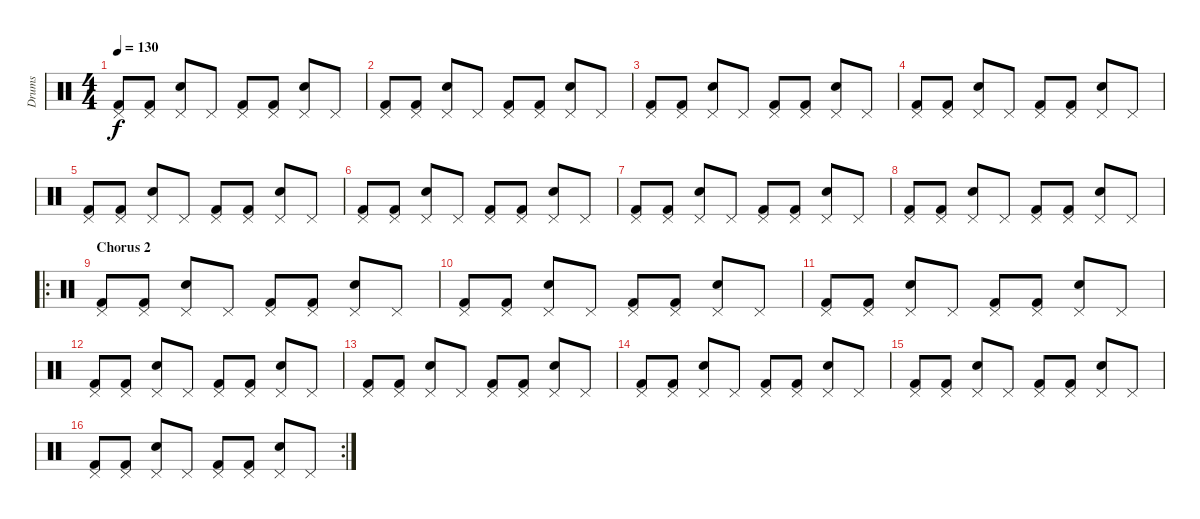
\track ("Drums" "Drums") {instrument percussion}
\staff {score}
\articulation defaults
\ts (4 4)
\tempo 130
\clef neutral
\ks c
("Pedal Hi-Hat (hit)" "Kick (hit) 2").8{dy f} ("Pedal Hi-Hat (hit)" "Kick (hit) 2").8 ("Pedal Hi-Hat (hit)" "Snare (hit) 2").8 "Pedal Hi-Hat (hit)".8 ("Pedal Hi-Hat (hit)" "Kick (hit) 2").8 ("Pedal Hi-Hat (hit)" "Kick (hit) 2").8 ("Pedal Hi-Hat (hit)" "Snare (hit) 2").8 "Pedal Hi-Hat (hit)".8 |
("Pedal Hi-Hat (hit)" "Kick (hit) 2").8 ("Pedal Hi-Hat (hit)" "Kick (hit) 2").8 ("Pedal Hi-Hat (hit)" "Snare (hit) 2").8 "Pedal Hi-Hat (hit)".8 ("Pedal Hi-Hat (hit)" "Kick (hit) 2").8 ("Pedal Hi-Hat (hit)" "Kick (hit) 2").8 ("Pedal Hi-Hat (hit)" "Snare (hit) 2").8 "Pedal Hi-Hat (hit)".8 |
("Pedal Hi-Hat (hit)" "Kick (hit) 2").8 ("Pedal Hi-Hat (hit)" "Kick (hit) 2").8 ("Pedal Hi-Hat (hit)" "Snare (hit) 2").8 "Pedal Hi-Hat (hit)".8 ("Pedal Hi-Hat (hit)" "Kick (hit) 2").8 ("Pedal Hi-Hat (hit)" "Kick (hit) 2").8 ("Pedal Hi-Hat (hit)" "Snare (hit) 2").8 "Pedal Hi-Hat (hit)".8 |
("Pedal Hi-Hat (hit)" "Kick (hit) 2").8 ("Pedal Hi-Hat (hit)" "Kick (hit) 2").8 ("Pedal Hi-Hat (hit)" "Snare (hit) 2").8 "Pedal Hi-Hat (hit)".8 ("Pedal Hi-Hat (hit)" "Kick (hit) 2").8 ("Pedal Hi-Hat (hit)" "Kick (hit) 2").8 ("Pedal Hi-Hat (hit)" "Snare (hit) 2").8 "Pedal Hi-Hat (hit)".8 |
("Pedal Hi-Hat (hit)" "Kick (hit) 2").8 ("Pedal Hi-Hat (hit)" "Kick (hit) 2").8 ("Pedal Hi-Hat (hit)" "Snare (hit) 2").8 "Pedal Hi-Hat (hit)".8 ("Pedal Hi-Hat (hit)" "Kick (hit) 2").8 ("Pedal Hi-Hat (hit)" "Kick (hit) 2").8 ("Pedal Hi-Hat (hit)" "Snare (hit) 2").8 "Pedal Hi-Hat (hit)".8 |
("Pedal Hi-Hat (hit)" "Kick (hit) 2").8 ("Pedal Hi-Hat (hit)" "Kick (hit) 2").8 ("Pedal Hi-Hat (hit)" "Snare (hit) 2").8 "Pedal Hi-Hat (hit)".8 ("Pedal Hi-Hat (hit)" "Kick (hit) 2").8 ("Pedal Hi-Hat (hit)" "Kick (hit) 2").8 ("Pedal Hi-Hat (hit)" "Snare (hit) 2").8 "Pedal Hi-Hat (hit)".8 |
("Pedal Hi-Hat (hit)" "Kick (hit) 2").8 ("Pedal Hi-Hat (hit)" "Kick (hit) 2").8 ("Pedal Hi-Hat (hit)" "Snare (hit) 2").8 "Pedal Hi-Hat (hit)".8 ("Pedal Hi-Hat (hit)" "Kick (hit) 2").8 ("Pedal Hi-Hat (hit)" "Kick (hit) 2").8 ("Pedal Hi-Hat (hit)" "Snare (hit) 2").8 "Pedal Hi-Hat (hit)".8 |
("Pedal Hi-Hat (hit)" "Kick (hit) 2").8 ("Pedal Hi-Hat (hit)" "Kick (hit) 2").8 ("Pedal Hi-Hat (hit)" "Snare (hit) 2").8 "Pedal Hi-Hat (hit)".8 ("Pedal Hi-Hat (hit)" "Kick (hit) 2").8 ("Pedal Hi-Hat (hit)" "Kick (hit) 2").8 ("Pedal Hi-Hat (hit)" "Snare (hit) 2").8 "Pedal Hi-Hat (hit)".8 |
\ro
\section ("" "Chorus 2")
("Pedal Hi-Hat (hit)" "Kick (hit) 2").8 ("Pedal Hi-Hat (hit)" "Kick (hit) 2").8 ("Pedal Hi-Hat (hit)" "Snare (hit) 2").8 "Pedal Hi-Hat (hit)".8 ("Pedal Hi-Hat (hit)" "Kick (hit) 2").8 ("Pedal Hi-Hat (hit)" "Kick (hit) 2").8 ("Pedal Hi-Hat (hit)" "Snare (hit) 2").8 "Pedal Hi-Hat (hit)".8 |
("Pedal Hi-Hat (hit)" "Kick (hit) 2").8 ("Pedal Hi-Hat (hit)" "Kick (hit) 2").8 ("Pedal Hi-Hat (hit)" "Snare (hit) 2").8 "Pedal Hi-Hat (hit)".8 ("Pedal Hi-Hat (hit)" "Kick (hit) 2").8 ("Pedal Hi-Hat (hit)" "Kick (hit) 2").8 ("Pedal Hi-Hat (hit)" "Snare (hit) 2").8 "Pedal Hi-Hat (hit)".8 |
("Pedal Hi-Hat (hit)" "Kick (hit) 2").8 ("Pedal Hi-Hat (hit)" "Kick (hit) 2").8 ("Pedal Hi-Hat (hit)" "Snare (hit) 2").8 "Pedal Hi-Hat (hit)".8 ("Pedal Hi-Hat (hit)" "Kick (hit) 2").8 ("Pedal Hi-Hat (hit)" "Kick (hit) 2").8 ("Pedal Hi-Hat (hit)" "Snare (hit) 2").8 "Pedal Hi-Hat (hit)".8 |
("Pedal Hi-Hat (hit)" "Kick (hit) 2").8 ("Pedal Hi-Hat (hit)" "Kick (hit) 2").8 ("Pedal Hi-Hat (hit)" "Snare (hit) 2").8 "Pedal Hi-Hat (hit)".8 ("Pedal Hi-Hat (hit)" "Kick (hit) 2").8 ("Pedal Hi-Hat (hit)" "Kick (hit) 2").8 ("Pedal Hi-Hat (hit)" "Snare (hit) 2").8 "Pedal Hi-Hat (hit)".8 |
("Pedal Hi-Hat (hit)" "Kick (hit) 2").8 ("Pedal Hi-Hat (hit)" "Kick (hit) 2").8 ("Pedal Hi-Hat (hit)" "Snare (hit) 2").8 "Pedal Hi-Hat (hit)".8 ("Pedal Hi-Hat (hit)" "Kick (hit) 2").8 ("Pedal Hi-Hat (hit)" "Kick (hit) 2").8 ("Pedal Hi-Hat (hit)" "Snare (hit) 2").8 "Pedal Hi-Hat (hit)".8 |
("Pedal Hi-Hat (hit)" "Kick (hit) 2").8 ("Pedal Hi-Hat (hit)" "Kick (hit) 2").8 ("Pedal Hi-Hat (hit)" "Snare (hit) 2").8 "Pedal Hi-Hat (hit)".8 ("Pedal Hi-Hat (hit)" "Kick (hit) 2").8 ("Pedal Hi-Hat (hit)" "Kick (hit) 2").8 ("Pedal Hi-Hat (hit)" "Snare (hit) 2").8 "Pedal Hi-Hat (hit)".8 |
("Pedal Hi-Hat (hit)" "Kick (hit) 2").8 ("Pedal Hi-Hat (hit)" "Kick (hit) 2").8 ("Pedal Hi-Hat (hit)" "Snare (hit) 2").8 "Pedal Hi-Hat (hit)".8 ("Pedal Hi-Hat (hit)" "Kick (hit) 2").8 ("Pedal Hi-Hat (hit)" "Kick (hit) 2").8 ("Pedal Hi-Hat (hit)" "Snare (hit) 2").8 "Pedal Hi-Hat (hit)".8 |
\rc 2
("Pedal Hi-Hat (hit)" "Kick (hit) 2").8 ("Pedal Hi-Hat (hit)" "Kick (hit) 2").8 ("Pedal Hi-Hat (hit)" "Snare (hit) 2").8 "Pedal Hi-Hat (hit)".8 ("Pedal Hi-Hat (hit)" "Kick (hit) 2").8 ("Pedal Hi-Hat (hit)" "Kick (hit) 2").8 ("Pedal Hi-Hat (hit)" "Snare (hit) 2").8 "Pedal Hi-Hat (hit)".8
